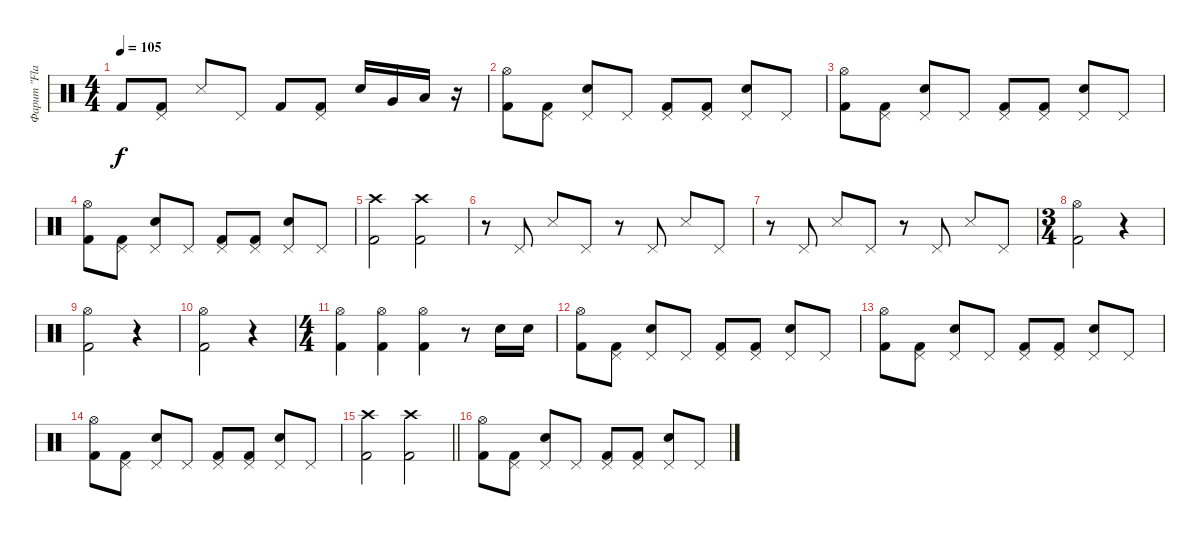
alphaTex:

\track ("Фарит \"Flag\" Шакиров" "Фарит \"Fla") {instrument percussion}
\staff {score}
\articulation defaults
\ts (4 4)
\tempo 105
\clef neutral
\ks c "Kick (hit) 2".8{dy f}
("Pedal Hi-Hat (hit)" "Kick (hit) 2").8 "Snare (side stick) 3".8 "Pedal Hi-Hat (hit)".8 "Kick (hit) 2".8 ("Pedal Hi-Hat (hit)" "Kick (hit) 2").8 "Electric Snare (hit)".16 "Very Low Tom (hit)".16 "Low Tom (hit)".16 r.16 |
("Hi-Hat (open)" "Kick (hit) 2").8 ("Pedal Hi-Hat (hit)" "Kick (hit) 2").8 ("Pedal Hi-Hat (hit)" "Electric Snare (hit)").8 "Pedal Hi-Hat (hit)".8 ("Pedal Hi-Hat (hit)" "Kick (hit) 2").8 ("Pedal Hi-Hat (hit)" "Kick (hit) 2").8 ("Pedal Hi-Hat (hit)" "Electric Snare (hit)").8 "Pedal Hi-Hat (hit)".8 |
("Hi-Hat (open)" "Kick (hit) 2").8 ("Pedal Hi-Hat (hit)" "Kick (hit) 2").8 ("Pedal Hi-Hat (hit)" "Electric Snare (hit)").8 "Pedal Hi-Hat (hit)".8 ("Pedal Hi-Hat (hit)" "Kick (hit) 2").8 ("Pedal Hi-Hat (hit)" "Kick (hit) 2").8 ("Pedal Hi-Hat (hit)" "Electric Snare (hit)").8 "Pedal Hi-Hat (hit)".8 |
("Hi-Hat (open)" "Kick (hit) 2").8 ("Pedal Hi-Hat (hit)" "Kick (hit) 2").8 ("Pedal Hi-Hat (hit)" "Electric Snare (hit)").8 "Pedal Hi-Hat (hit)".8 ("Pedal Hi-Hat (hit)" "Kick (hit) 2").8 ("Pedal Hi-Hat (hit)" "Kick (hit) 2").8 ("Pedal Hi-Hat (hit)" "Electric Snare (hit)").8 "Pedal Hi-Hat (hit)".8 |
("Crash high (hit)" "Kick (hit) 2").2 ("Crash high (hit)" "Kick (hit) 2").2 |
r.8 "Pedal Hi-Hat (hit)".8 "Snare (side stick) 3".8 "Pedal Hi-Hat (hit)".8 r.8 "Pedal Hi-Hat (hit)".8 "Snare (side stick) 3".8 "Pedal Hi-Hat (hit)".8 |
r.8 "Pedal Hi-Hat (hit)".8 "Snare (side stick) 3".8 "Pedal Hi-Hat (hit)".8 r.8 "Pedal Hi-Hat (hit)".8 "Snare (side stick) 3".8 "Pedal Hi-Hat (hit)".8 |
\ts (3 4)
("Hi-Hat (open)" "Kick (hit) 2").2 r.4 |
("Hi-Hat (open)" "Kick (hit) 2").2 r.4 |
("Hi-Hat (open)" "Kick (hit) 2").2 r.4 |
\ts (4 4)
("Hi-Hat (open)" "Kick (hit) 2").4 ("Hi-Hat (open)" "Kick (hit) 2").4 ("Hi-Hat (open)" "Kick (hit) 2").4 r.8 "Electric Snare (hit)".16 "Electric Snare (hit)".16 |
("Hi-Hat (open)" "Kick (hit) 2").8 ("Pedal Hi-Hat (hit)" "Kick (hit) 2").8 ("Pedal Hi-Hat (hit)" "Electric Snare (hit)").8 "Pedal Hi-Hat (hit)".8 ("Pedal Hi-Hat (hit)" "Kick (hit) 2").8 ("Pedal Hi-Hat (hit)" "Kick (hit) 2").8 ("Pedal Hi-Hat (hit)" "Electric Snare (hit)").8 "Pedal Hi-Hat (hit)".8 |
("Hi-Hat (open)" "Kick (hit) 2").8 ("Pedal Hi-Hat (hit)" "Kick (hit) 2").8 ("Pedal Hi-Hat (hit)" "Electric Snare (hit)").8 "Pedal Hi-Hat (hit)".8 ("Pedal Hi-Hat (hit)" "Kick (hit) 2").8 ("Pedal Hi-Hat (hit)" "Kick (hit) 2").8 ("Pedal Hi-Hat (hit)" "Electric Snare (hit)").8 "Pedal Hi-Hat (hit)".8 |
("Hi-Hat (open)" "Kick (hit) 2").8 ("Pedal Hi-Hat (hit)" "Kick (hit) 2").8 ("Pedal Hi-Hat (hit)" "Electric Snare (hit)").8 "Pedal Hi-Hat (hit)".8 ("Pedal Hi-Hat (hit)" "Kick (hit) 2").8 ("Pedal Hi-Hat (hit)" "Kick (hit) 2").8 ("Pedal Hi-Hat (hit)" "Electric Snare (hit)").8 "Pedal Hi-Hat (hit)".8 |
\barLineRight lightlight
("Crash high (hit)" "Kick (hit) 2").2 ("Crash high (hit)" "Kick (hit) 2").2 |
\section ("" "")
("Hi-Hat (open)" "Kick (hit) 2").8 ("Pedal Hi-Hat (hit)" "Kick (hit) 2").8 ("Pedal Hi-Hat (hit)" "Electric Snare (hit)").8 "Pedal Hi-Hat (hit)".8 ("Pedal Hi-Hat (hit)" "Kick (hit) 2").8 ("Pedal Hi-Hat (hit)" "Kick (hit) 2").8 ("Pedal Hi-Hat (hit)" "Electric Snare (hit)").8 "Pedal Hi-Hat (hit)".8
